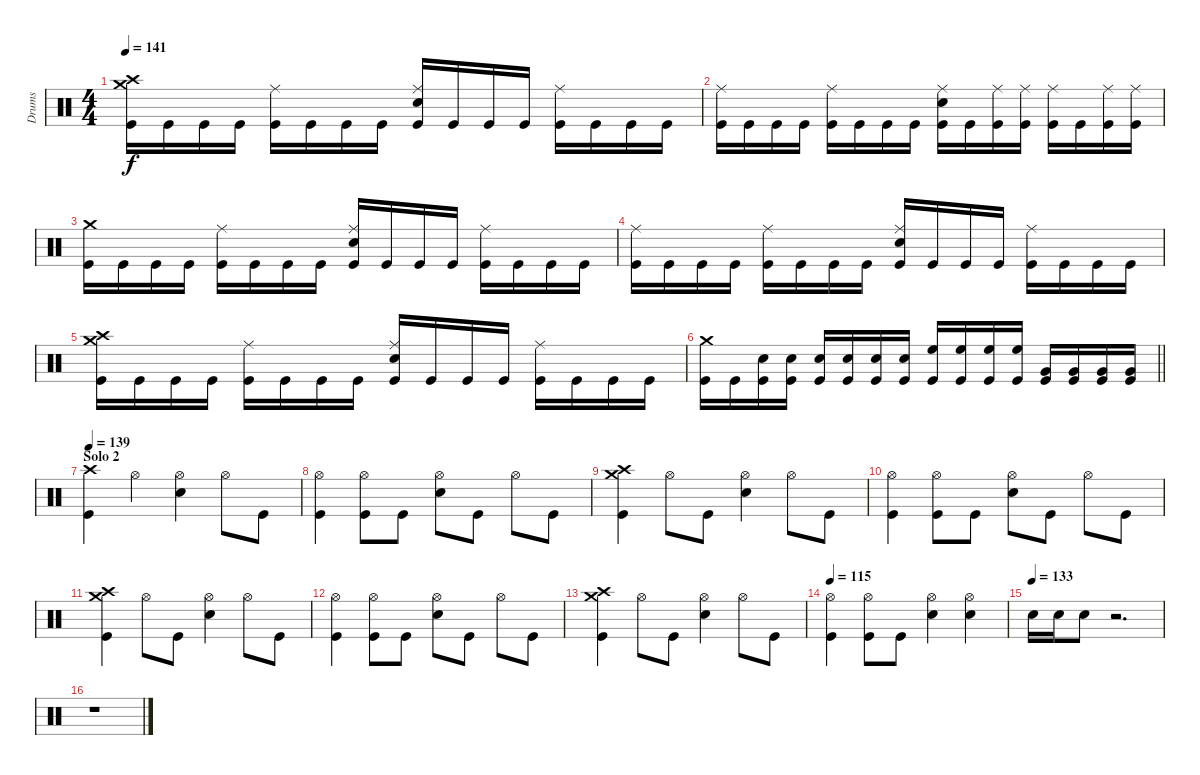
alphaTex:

\track ("Drums" "Drums") {instrument percussion}
\staff {score}
\articulation defaults
\ts (4 4)
\tempo 141
\clef neutral
\ks c
("Kick (hit)" "Crash high (hit)" "Crash medium (hit)").16{dy f} "Kick (hit)".16 "Kick (hit)".16 "Kick (hit)".16 ("Kick (hit)" "Ride (middle)").16 "Kick (hit)".16 "Kick (hit)".16 "Kick (hit)".16 ("Kick (hit)" "Snare (hit) 2" "Ride (middle)").16 "Kick (hit)".16 "Kick (hit)".16 "Kick (hit)".16 ("Kick (hit)" "Ride (middle)").16 "Kick (hit)".16 "Kick (hit)".16 "Kick (hit)".16 |
("Kick (hit)" "Ride (middle)").16 "Kick (hit)".16 "Kick (hit)".16 "Kick (hit)".16 ("Kick (hit)" "Ride (middle)").16 "Kick (hit)".16 "Kick (hit)".16 "Kick (hit)".16 ("Kick (hit)" "Snare (hit) 2" "Ride (middle)").16 "Kick (hit)".16 ("Kick (hit)" "Ride (middle)").16 ("Kick (hit)" "Ride (middle)").16 ("Kick (hit)" "Ride (middle)").16 "Kick (hit)".16 ("Kick (hit)" "Ride (middle)").16 ("Kick (hit)" "Ride (middle)").16 |
("Kick (hit)" "Crash medium (hit)").16 "Kick (hit)".16 "Kick (hit)".16 "Kick (hit)".16 ("Kick (hit)" "Ride (middle)").16 "Kick (hit)".16 "Kick (hit)".16 "Kick (hit)".16 ("Kick (hit)" "Snare (hit) 2" "Ride (middle)").16 "Kick (hit)".16 "Kick (hit)".16 "Kick (hit)".16 ("Kick (hit)" "Ride (middle)").16 "Kick (hit)".16 "Kick (hit)".16 "Kick (hit)".16 |
("Kick (hit)" "Ride (middle)").16 "Kick (hit)".16 "Kick (hit)".16 "Kick (hit)".16 ("Kick (hit)" "Ride (middle)").16 "Kick (hit)".16 "Kick (hit)".16 "Kick (hit)".16 ("Kick (hit)" "Snare (hit) 2" "Ride (middle)").16 "Kick (hit)".16 "Kick (hit)".16 "Kick (hit)".16 ("Kick (hit)" "Ride (middle)").16 "Kick (hit)".16 "Kick (hit)".16 "Kick (hit)".16 |
("Kick (hit)" "Crash high (hit)" "Crash medium (hit)").16 "Kick (hit)".16 "Kick (hit)".16 "Kick (hit)".16 ("Kick (hit)" "Ride (middle)").16 "Kick (hit)".16 "Kick (hit)".16 "Kick (hit)".16 ("Kick (hit)" "Snare (hit) 2" "Ride (middle)").16 "Kick (hit)".16 "Kick (hit)".16 "Kick (hit)".16 ("Kick (hit)" "Ride (middle)").16 "Kick (hit)".16 "Kick (hit)".16 "Kick (hit)".16 |
\barLineRight lightlight
("Kick (hit)" "Crash medium (hit)").16 "Kick (hit)".16 ("Kick (hit)" "Snare (hit) 2").16 ("Kick (hit)" "Snare (hit) 2").16 ("Kick (hit)" "Snare (hit) 2").16 ("Kick (hit)" "Snare (hit) 2").16 ("Kick (hit)" "Snare (hit) 2").16 ("Kick (hit)" "Snare (hit) 2").16 ("Kick (hit)" "High Floor Tom (hit)").16 ("Kick (hit)" "High Floor Tom (hit)").16 ("Kick (hit)" "High Floor Tom (hit)").16 ("Kick (hit)" "High Floor Tom (hit)").16 ("Kick (hit)" "Very Low Tom (hit)").16 ("Kick (hit)" "Very Low Tom (hit)").16 ("Kick (hit)" "Very Low Tom (hit)").16 ("Kick (hit)" "Very Low Tom (hit)").16 |
\section ("" "Solo 2")
\tempo 139
("Crash high (hit)" "Kick (hit)").4 "Hi-Hat (open)".4 ("Hi-Hat (open)" "Snare (hit) 2").4 "Hi-Hat (open)".8 "Kick (hit)".8 |
("Hi-Hat (open)" "Kick (hit)").4 ("Hi-Hat (open)" "Kick (hit)").8 "Kick (hit)".8 ("Hi-Hat (open)" "Snare (hit) 2").8 "Kick (hit)".8 "Hi-Hat (open)".8 "Kick (hit)".8 |
("Kick (hit)" "Crash high (hit)" "Crash medium (hit)").4 "Hi-Hat (open)".8 "Kick (hit)".8 ("Hi-Hat (open)" "Snare (hit) 2").4 "Hi-Hat (open)".8 "Kick (hit)".8 |
("Hi-Hat (open)" "Kick (hit)").4 ("Hi-Hat (open)" "Kick (hit)").8 "Kick (hit)".8 ("Hi-Hat (open)" "Snare (hit) 2").8 "Kick (hit)".8 "Hi-Hat (open)".8 "Kick (hit)".8 |
("Kick (hit)" "Crash high (hit)" "Crash medium (hit)").4 "Hi-Hat (open)".8 "Kick (hit)".8 ("Hi-Hat (open)" "Snare (hit) 2").4 "Hi-Hat (open)".8 "Kick (hit)".8 |
("Hi-Hat (open)" "Kick (hit)").4 ("Hi-Hat (open)" "Kick (hit)").8 "Kick (hit)".8 ("Hi-Hat (open)" "Snare (hit) 2").8 "Kick (hit)".8 "Hi-Hat (open)".8 "Kick (hit)".8 |
("Kick (hit)" "Crash high (hit)" "Crash medium (hit)").4 "Hi-Hat (open)".8 "Kick (hit)".8 ("Hi-Hat (open)" "Snare (hit) 2").4 "Hi-Hat (open)".8 "Kick (hit)".8 |
\tempo 115
("Hi-Hat (open)" "Kick (hit)").4 ("Hi-Hat (open)" "Kick (hit)").8 "Kick (hit)".8 ("Hi-Hat (open)" "Snare (hit) 2").4 ("Hi-Hat (open)" "Snare (hit) 2").4 |
\tempo (133)
"Snare (hit) 2".16 "Snare (hit) 2".16 "Snare (hit) 2".8 r.2{d} |
r.1
